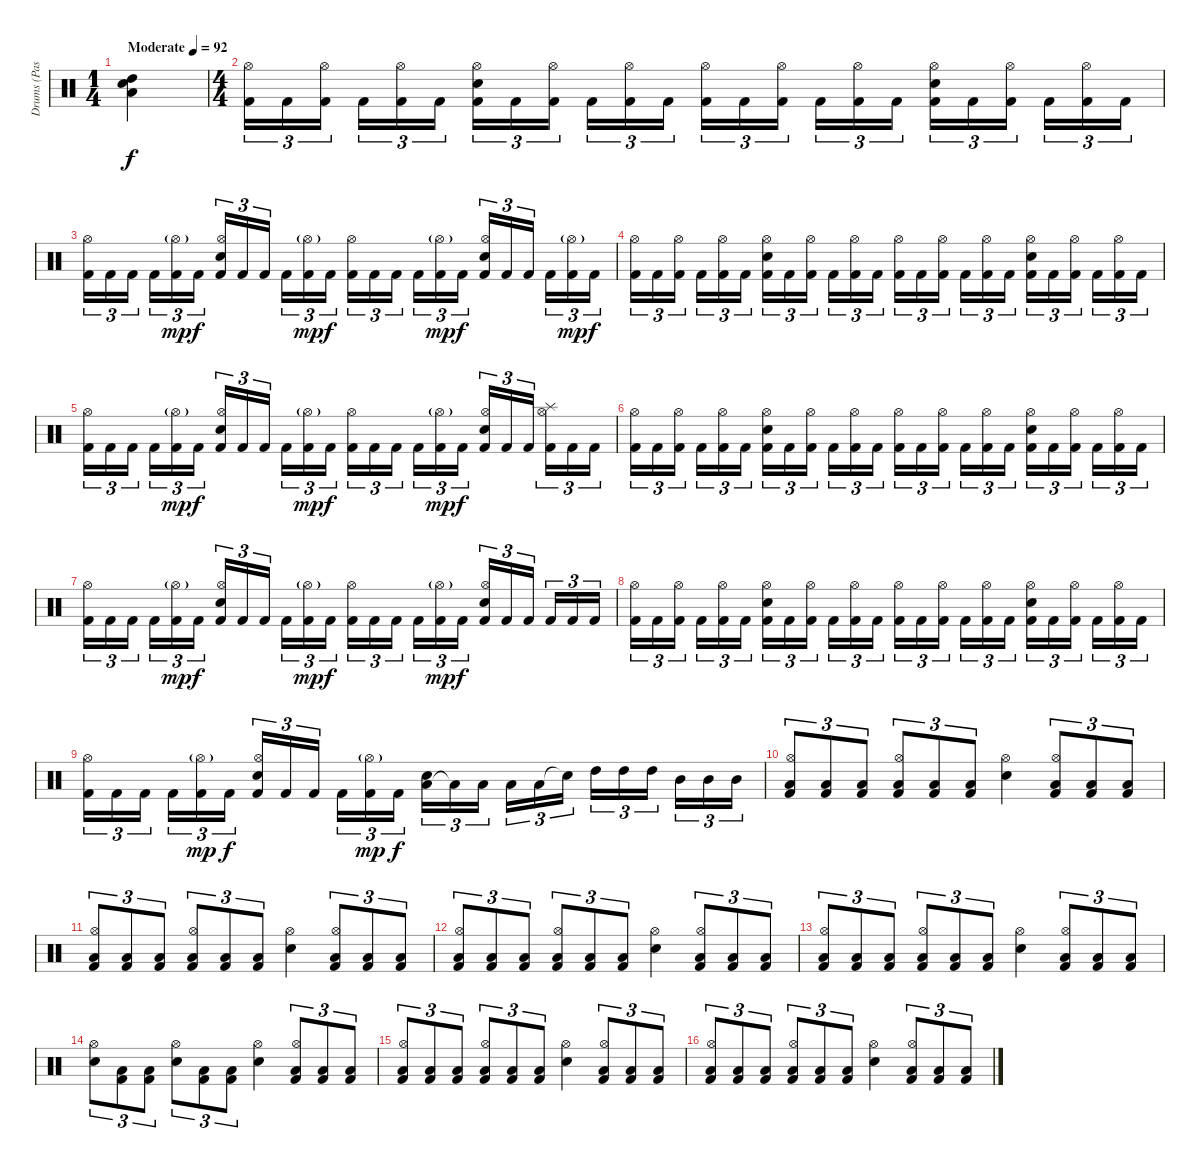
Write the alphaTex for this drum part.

\track ("Drums (Pasanen)" "Drums (Pas") {instrument percussion}
\staff {score}
\articulation defaults
\ts (1 4)
\tempo (92 "Moderate")
\clef neutral
\ks c
("Electric Snare (hit)" "Low Tom (hit)" "High Tom (hit)").4{dy f} |
\ts (4 4)
("Hi-Hat (open)" "Kick (hit) 2").16{tu (3 2)} "Kick (hit) 2".16{tu (3 2)} ("Hi-Hat (open)" "Kick (hit) 2").16{tu (3 2) beam splitsecondary} "Kick (hit) 2".16{tu (3 2)} ("Hi-Hat (open)" "Kick (hit) 2").16{tu (3 2)} "Kick (hit) 2".16{tu (3 2)} ("Hi-Hat (open)" "Electric Snare (hit)" "Kick (hit) 2").16{tu (3 2)} "Kick (hit) 2".16{tu (3 2)} ("Hi-Hat (open)" "Kick (hit) 2").16{tu (3 2) beam splitsecondary} "Kick (hit) 2".16{tu (3 2)} ("Hi-Hat (open)" "Kick (hit) 2").16{tu (3 2)} "Kick (hit) 2".16{tu (3 2)} ("Hi-Hat (open)" "Kick (hit) 2").16{tu (3 2)} "Kick (hit) 2".16{tu (3 2)} ("Hi-Hat (open)" "Kick (hit) 2").16{tu (3 2) beam splitsecondary} "Kick (hit) 2".16{tu (3 2)} ("Hi-Hat (open)" "Kick (hit) 2").16{tu (3 2)} "Kick (hit) 2".16{tu (3 2)} ("Hi-Hat (open)" "Electric Snare (hit)" "Kick (hit) 2").16{tu (3 2)} "Kick (hit) 2".16{tu (3 2)} ("Hi-Hat (open)" "Kick (hit) 2").16{tu (3 2) beam splitsecondary} "Kick (hit) 2".16{tu (3 2)} ("Hi-Hat (open)" "Kick (hit) 2").16{tu (3 2)} "Kick (hit) 2".16{tu (3 2)} |
("Hi-Hat (open)" "Kick (hit) 2").16{tu (3 2)} "Kick (hit) 2".16{tu (3 2)} "Kick (hit) 2".16{tu (3 2) beam splitsecondary} "Kick (hit) 2".16{tu (3 2)} ("Hi-Hat (open)"{g} "Kick (hit) 2").16{tu (3 2) dy mp} "Kick (hit) 2".16{tu (3 2) dy f} ("Hi-Hat (open)" "Electric Snare (hit)" "Kick (hit) 2").16{tu (3 2)} "Kick (hit) 2".16{tu (3 2)} "Kick (hit) 2".16{tu (3 2) beam splitsecondary} "Kick (hit) 2".16{tu (3 2)} ("Hi-Hat (open)"{g} "Kick (hit) 2").16{tu (3 2) dy mp} "Kick (hit) 2".16{tu (3 2) dy f} ("Hi-Hat (open)" "Kick (hit) 2").16{tu (3 2)} "Kick (hit) 2".16{tu (3 2)} "Kick (hit) 2".16{tu (3 2) beam splitsecondary} "Kick (hit) 2".16{tu (3 2)} ("Hi-Hat (open)"{g} "Kick (hit) 2").16{tu (3 2) dy mp} "Kick (hit) 2".16{tu (3 2) dy f} ("Hi-Hat (open)" "Electric Snare (hit)" "Kick (hit) 2").16{tu (3 2)} "Kick (hit) 2".16{tu (3 2)} "Kick (hit) 2".16{tu (3 2) beam splitsecondary} "Kick (hit) 2".16{tu (3 2)} ("Hi-Hat (open)"{g} "Kick (hit) 2").16{tu (3 2) dy mp} "Kick (hit) 2".16{tu (3 2) dy f} |
("Hi-Hat (open)" "Kick (hit) 2").16{tu (3 2)} "Kick (hit) 2".16{tu (3 2)} ("Hi-Hat (open)" "Kick (hit) 2").16{tu (3 2) beam splitsecondary} "Kick (hit) 2".16{tu (3 2)} ("Hi-Hat (open)" "Kick (hit) 2").16{tu (3 2)} "Kick (hit) 2".16{tu (3 2)} ("Hi-Hat (open)" "Electric Snare (hit)" "Kick (hit) 2").16{tu (3 2)} "Kick (hit) 2".16{tu (3 2)} ("Hi-Hat (open)" "Kick (hit) 2").16{tu (3 2) beam splitsecondary} "Kick (hit) 2".16{tu (3 2)} ("Hi-Hat (open)" "Kick (hit) 2").16{tu (3 2)} "Kick (hit) 2".16{tu (3 2)} ("Hi-Hat (open)" "Kick (hit) 2").16{tu (3 2)} "Kick (hit) 2".16{tu (3 2)} ("Hi-Hat (open)" "Kick (hit) 2").16{tu (3 2) beam splitsecondary} "Kick (hit) 2".16{tu (3 2)} ("Hi-Hat (open)" "Kick (hit) 2").16{tu (3 2)} "Kick (hit) 2".16{tu (3 2)} ("Hi-Hat (open)" "Electric Snare (hit)" "Kick (hit) 2").16{tu (3 2)} "Kick (hit) 2".16{tu (3 2)} ("Hi-Hat (open)" "Kick (hit) 2").16{tu (3 2) beam splitsecondary} "Kick (hit) 2".16{tu (3 2)} ("Hi-Hat (open)" "Kick (hit) 2").16{tu (3 2)} "Kick (hit) 2".16{tu (3 2)} |
("Hi-Hat (open)" "Kick (hit) 2").16{tu (3 2)} "Kick (hit) 2".16{tu (3 2)} "Kick (hit) 2".16{tu (3 2) beam splitsecondary} "Kick (hit) 2".16{tu (3 2)} ("Hi-Hat (open)"{g} "Kick (hit) 2").16{tu (3 2) dy mp} "Kick (hit) 2".16{tu (3 2) dy f} ("Hi-Hat (open)" "Electric Snare (hit)" "Kick (hit) 2").16{tu (3 2)} "Kick (hit) 2".16{tu (3 2)} "Kick (hit) 2".16{tu (3 2) beam splitsecondary} "Kick (hit) 2".16{tu (3 2)} ("Hi-Hat (open)"{g} "Kick (hit) 2").16{tu (3 2) dy mp} "Kick (hit) 2".16{tu (3 2) dy f} ("Hi-Hat (open)" "Kick (hit) 2").16{tu (3 2)} "Kick (hit) 2".16{tu (3 2)} "Kick (hit) 2".16{tu (3 2) beam splitsecondary} "Kick (hit) 2".16{tu (3 2)} ("Hi-Hat (open)"{g} "Kick (hit) 2").16{tu (3 2) dy mp} "Kick (hit) 2".16{tu (3 2) dy f} ("Hi-Hat (open)" "Electric Snare (hit)" "Kick (hit) 2").16{tu (3 2)} "Kick (hit) 2".16{tu (3 2)} "Kick (hit) 2".16{tu (3 2) beam splitsecondary} ("Splash (hit)" "Hi-Hat (open)" "Kick (hit) 2").16{tu (3 2)} "Kick (hit) 2".16{tu (3 2)} "Kick (hit) 2".16{tu (3 2)} |
("Hi-Hat (open)" "Kick (hit) 2").16{tu (3 2)} "Kick (hit) 2".16{tu (3 2)} ("Hi-Hat (open)" "Kick (hit) 2").16{tu (3 2) beam splitsecondary} "Kick (hit) 2".16{tu (3 2)} ("Hi-Hat (open)" "Kick (hit) 2").16{tu (3 2)} "Kick (hit) 2".16{tu (3 2)} ("Hi-Hat (open)" "Electric Snare (hit)" "Kick (hit) 2").16{tu (3 2)} "Kick (hit) 2".16{tu (3 2)} ("Hi-Hat (open)" "Kick (hit) 2").16{tu (3 2) beam splitsecondary} "Kick (hit) 2".16{tu (3 2)} ("Hi-Hat (open)" "Kick (hit) 2").16{tu (3 2)} "Kick (hit) 2".16{tu (3 2)} ("Hi-Hat (open)" "Kick (hit) 2").16{tu (3 2)} "Kick (hit) 2".16{tu (3 2)} ("Hi-Hat (open)" "Kick (hit) 2").16{tu (3 2) beam splitsecondary} "Kick (hit) 2".16{tu (3 2)} ("Hi-Hat (open)" "Kick (hit) 2").16{tu (3 2)} "Kick (hit) 2".16{tu (3 2)} ("Hi-Hat (open)" "Electric Snare (hit)" "Kick (hit) 2").16{tu (3 2)} "Kick (hit) 2".16{tu (3 2)} ("Hi-Hat (open)" "Kick (hit) 2").16{tu (3 2) beam splitsecondary} "Kick (hit) 2".16{tu (3 2)} ("Hi-Hat (open)" "Kick (hit) 2").16{tu (3 2)} "Kick (hit) 2".16{tu (3 2)} |
("Hi-Hat (open)" "Kick (hit) 2").16{tu (3 2)} "Kick (hit) 2".16{tu (3 2)} "Kick (hit) 2".16{tu (3 2) beam splitsecondary} "Kick (hit) 2".16{tu (3 2)} ("Hi-Hat (open)"{g} "Kick (hit) 2").16{tu (3 2) dy mp} "Kick (hit) 2".16{tu (3 2) dy f} ("Hi-Hat (open)" "Electric Snare (hit)" "Kick (hit) 2").16{tu (3 2)} "Kick (hit) 2".16{tu (3 2)} "Kick (hit) 2".16{tu (3 2) beam splitsecondary} "Kick (hit) 2".16{tu (3 2)} ("Hi-Hat (open)"{g} "Kick (hit) 2").16{tu (3 2) dy mp} "Kick (hit) 2".16{tu (3 2) dy f} ("Hi-Hat (open)" "Kick (hit) 2").16{tu (3 2)} "Kick (hit) 2".16{tu (3 2)} "Kick (hit) 2".16{tu (3 2) beam splitsecondary} "Kick (hit) 2".16{tu (3 2)} ("Hi-Hat (open)"{g} "Kick (hit) 2").16{tu (3 2) dy mp} "Kick (hit) 2".16{tu (3 2) dy f} ("Hi-Hat (open)" "Electric Snare (hit)" "Kick (hit) 2").16{tu (3 2)} "Kick (hit) 2".16{tu (3 2)} "Kick (hit) 2".16{tu (3 2) beam splitsecondary} "Kick (hit) 2".16{tu (3 2)} "Kick (hit) 2".16{tu (3 2)} "Kick (hit) 2".16{tu (3 2)} |
("Hi-Hat (open)" "Kick (hit) 2").16{tu (3 2)} "Kick (hit) 2".16{tu (3 2)} ("Hi-Hat (open)" "Kick (hit) 2").16{tu (3 2) beam splitsecondary} "Kick (hit) 2".16{tu (3 2)} ("Hi-Hat (open)" "Kick (hit) 2").16{tu (3 2)} "Kick (hit) 2".16{tu (3 2)} ("Hi-Hat (open)" "Electric Snare (hit)" "Kick (hit) 2").16{tu (3 2)} "Kick (hit) 2".16{tu (3 2)} ("Hi-Hat (open)" "Kick (hit) 2").16{tu (3 2) beam splitsecondary} "Kick (hit) 2".16{tu (3 2)} ("Hi-Hat (open)" "Kick (hit) 2").16{tu (3 2)} "Kick (hit) 2".16{tu (3 2)} ("Hi-Hat (open)" "Kick (hit) 2").16{tu (3 2)} "Kick (hit) 2".16{tu (3 2)} ("Hi-Hat (open)" "Kick (hit) 2").16{tu (3 2) beam splitsecondary} "Kick (hit) 2".16{tu (3 2)} ("Hi-Hat (open)" "Kick (hit) 2").16{tu (3 2)} "Kick (hit) 2".16{tu (3 2)} ("Hi-Hat (open)" "Electric Snare (hit)" "Kick (hit) 2").16{tu (3 2)} "Kick (hit) 2".16{tu (3 2)} ("Hi-Hat (open)" "Kick (hit) 2").16{tu (3 2) beam splitsecondary} "Kick (hit) 2".16{tu (3 2)} ("Hi-Hat (open)" "Kick (hit) 2").16{tu (3 2)} "Kick (hit) 2".16{tu (3 2)} |
("Hi-Hat (open)" "Kick (hit) 2").16{tu (3 2)} "Kick (hit) 2".16{tu (3 2)} "Kick (hit) 2".16{tu (3 2) beam splitsecondary} "Kick (hit) 2".16{tu (3 2)} ("Hi-Hat (open)"{g} "Kick (hit) 2").16{tu (3 2) dy mp} "Kick (hit) 2".16{tu (3 2) dy f} ("Hi-Hat (open)" "Electric Snare (hit)" "Kick (hit) 2").16{tu (3 2)} "Kick (hit) 2".16{tu (3 2)} "Kick (hit) 2".16{tu (3 2) beam splitsecondary} "Kick (hit) 2".16{tu (3 2)} ("Hi-Hat (open)"{g} "Kick (hit) 2").16{tu (3 2) dy mp} "Kick (hit) 2".16{tu (3 2) dy f} ("Low Tom (hit)" "Electric Snare (hit)").16{tu (3 2)} "Low Tom (hit)"{t}.16{tu (3 2)} "Low Tom (hit)".16{tu (3 2) beam splitsecondary} "Low Tom (hit)".16{tu (3 2)} "Low Tom (hit)".16{tu (3 2)} "Snare (hit)"{t}.16{tu (3 2)} "High Tom (hit)".16{tu (3 2)} "High Tom (hit)".16{tu (3 2)} "High Tom (hit)".16{tu (3 2) beam splitsecondary} "Mid Tom (hit)".16{tu (3 2)} "Mid Tom (hit)".16{tu (3 2)} "Mid Tom (hit)".16{tu (3 2)} |
("Hi-Hat (open)" "Low Tom (hit)" "Kick (hit) 2").8{tu (3 2)} ("Low Tom (hit)" "Kick (hit) 2").8{tu (3 2)} ("Low Tom (hit)" "Kick (hit) 2").8{tu (3 2)} ("Hi-Hat (open)" "Low Tom (hit)" "Kick (hit) 2").8{tu (3 2)} ("Low Tom (hit)" "Kick (hit) 2").8{tu (3 2)} ("Low Tom (hit)" "Kick (hit) 2").8{tu (3 2)} ("Hi-Hat (open)" "Electric Snare (hit)").4 ("Hi-Hat (open)" "Low Tom (hit)" "Kick (hit) 2").8{tu (3 2)} ("Low Tom (hit)" "Kick (hit) 2").8{tu (3 2)} ("Low Tom (hit)" "Kick (hit) 2").8{tu (3 2)} |
("Hi-Hat (open)" "Low Tom (hit)" "Kick (hit) 2").8{tu (3 2)} ("Low Tom (hit)" "Kick (hit) 2").8{tu (3 2)} ("Low Tom (hit)" "Kick (hit) 2").8{tu (3 2)} ("Hi-Hat (open)" "Low Tom (hit)" "Kick (hit) 2").8{tu (3 2)} ("Low Tom (hit)" "Kick (hit) 2").8{tu (3 2)} ("Low Tom (hit)" "Kick (hit) 2").8{tu (3 2)} ("Hi-Hat (open)" "Electric Snare (hit)").4 ("Hi-Hat (open)" "Low Tom (hit)" "Kick (hit) 2").8{tu (3 2)} ("Low Tom (hit)" "Kick (hit) 2").8{tu (3 2)} ("Low Tom (hit)" "Kick (hit) 2").8{tu (3 2)} |
("Hi-Hat (open)" "Low Tom (hit)" "Kick (hit) 2").8{tu (3 2)} ("Low Tom (hit)" "Kick (hit) 2").8{tu (3 2)} ("Low Tom (hit)" "Kick (hit) 2").8{tu (3 2)} ("Hi-Hat (open)" "Low Tom (hit)" "Kick (hit) 2").8{tu (3 2)} ("Low Tom (hit)" "Kick (hit) 2").8{tu (3 2)} ("Low Tom (hit)" "Kick (hit) 2").8{tu (3 2)} ("Hi-Hat (open)" "Electric Snare (hit)").4 ("Hi-Hat (open)" "Low Tom (hit)" "Kick (hit) 2").8{tu (3 2)} ("Low Tom (hit)" "Kick (hit) 2").8{tu (3 2)} ("Low Tom (hit)" "Kick (hit) 2").8{tu (3 2)} |
("Hi-Hat (open)" "Low Tom (hit)" "Kick (hit) 2").8{tu (3 2)} ("Low Tom (hit)" "Kick (hit) 2").8{tu (3 2)} ("Low Tom (hit)" "Kick (hit) 2").8{tu (3 2)} ("Hi-Hat (open)" "Low Tom (hit)" "Kick (hit) 2").8{tu (3 2)} ("Low Tom (hit)" "Kick (hit) 2").8{tu (3 2)} ("Low Tom (hit)" "Kick (hit) 2").8{tu (3 2)} ("Hi-Hat (open)" "Electric Snare (hit)").4 ("Hi-Hat (open)" "Low Tom (hit)" "Kick (hit) 2").8{tu (3 2)} ("Low Tom (hit)" "Kick (hit) 2").8{tu (3 2)} ("Low Tom (hit)" "Kick (hit) 2").8{tu (3 2)} |
("Hi-Hat (open)" "Electric Snare (hit)").8{tu (3 2)} ("Low Tom (hit)" "Kick (hit) 2").8{tu (3 2)} ("Low Tom (hit)" "Kick (hit) 2").8{tu (3 2)} ("Hi-Hat (open)" "Electric Snare (hit)").8{tu (3 2)} ("Low Tom (hit)" "Kick (hit) 2").8{tu (3 2)} ("Low Tom (hit)" "Kick (hit) 2").8{tu (3 2)} ("Hi-Hat (open)" "Electric Snare (hit)").4 ("Hi-Hat (open)" "Low Tom (hit)" "Kick (hit) 2").8{tu (3 2)} ("Low Tom (hit)" "Kick (hit) 2").8{tu (3 2)} ("Low Tom (hit)" "Kick (hit) 2").8{tu (3 2)} |
("Hi-Hat (open)" "Low Tom (hit)" "Kick (hit) 2").8{tu (3 2)} ("Low Tom (hit)" "Kick (hit) 2").8{tu (3 2)} ("Low Tom (hit)" "Kick (hit) 2").8{tu (3 2)} ("Hi-Hat (open)" "Low Tom (hit)" "Kick (hit) 2").8{tu (3 2)} ("Low Tom (hit)" "Kick (hit) 2").8{tu (3 2)} ("Low Tom (hit)" "Kick (hit) 2").8{tu (3 2)} ("Hi-Hat (open)" "Electric Snare (hit)").4 ("Hi-Hat (open)" "Low Tom (hit)" "Kick (hit) 2").8{tu (3 2)} ("Low Tom (hit)" "Kick (hit) 2").8{tu (3 2)} ("Low Tom (hit)" "Kick (hit) 2").8{tu (3 2)} |
("Hi-Hat (open)" "Low Tom (hit)" "Kick (hit) 2").8{tu (3 2)} ("Low Tom (hit)" "Kick (hit) 2").8{tu (3 2)} ("Low Tom (hit)" "Kick (hit) 2").8{tu (3 2)} ("Hi-Hat (open)" "Low Tom (hit)" "Kick (hit) 2").8{tu (3 2)} ("Low Tom (hit)" "Kick (hit) 2").8{tu (3 2)} ("Low Tom (hit)" "Kick (hit) 2").8{tu (3 2)} ("Hi-Hat (open)" "Electric Snare (hit)").4 ("Hi-Hat (open)" "Low Tom (hit)" "Kick (hit) 2").8{tu (3 2)} ("Low Tom (hit)" "Kick (hit) 2").8{tu (3 2)} ("Low Tom (hit)" "Kick (hit) 2").8{tu (3 2)}
